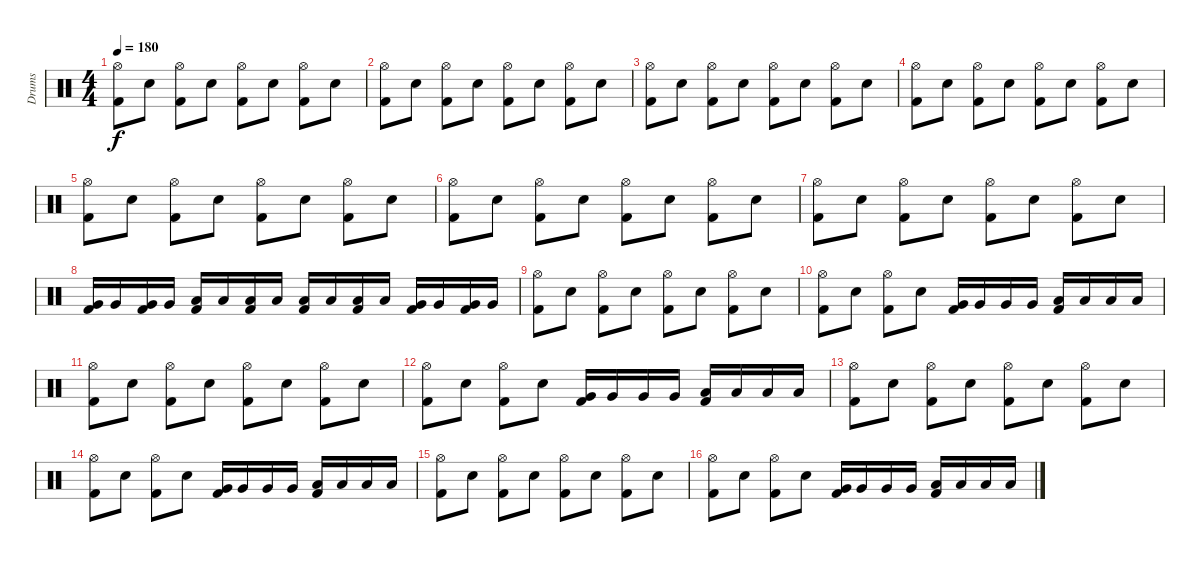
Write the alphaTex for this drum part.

\track ("Drums" "Drums") {instrument percussion}
\staff {score}
\articulation defaults
\ts (4 4)
\tempo 180
\clef neutral
\ks c
("Kick (hit) 2" "Hi-Hat (open)").8{dy f} "Electric Snare (hit)".8 ("Kick (hit) 2" "Hi-Hat (open)").8 "Electric Snare (hit)".8 ("Kick (hit) 2" "Hi-Hat (open)").8 "Electric Snare (hit)".8 ("Kick (hit) 2" "Hi-Hat (open)").8 "Electric Snare (hit)".8 |
("Kick (hit) 2" "Hi-Hat (open)").8 "Electric Snare (hit)".8 ("Kick (hit) 2" "Hi-Hat (open)").8 "Electric Snare (hit)".8 ("Kick (hit) 2" "Hi-Hat (open)").8 "Electric Snare (hit)".8 ("Kick (hit) 2" "Hi-Hat (open)").8 "Electric Snare (hit)".8 |
("Kick (hit) 2" "Hi-Hat (open)").8 "Electric Snare (hit)".8 ("Kick (hit) 2" "Hi-Hat (open)").8 "Electric Snare (hit)".8 ("Kick (hit) 2" "Hi-Hat (open)").8 "Electric Snare (hit)".8 ("Kick (hit) 2" "Hi-Hat (open)").8 "Electric Snare (hit)".8 |
("Kick (hit) 2" "Hi-Hat (open)").8 "Electric Snare (hit)".8 ("Kick (hit) 2" "Hi-Hat (open)").8 "Electric Snare (hit)".8 ("Kick (hit) 2" "Hi-Hat (open)").8 "Electric Snare (hit)".8 ("Kick (hit) 2" "Hi-Hat (open)").8 "Electric Snare (hit)".8 |
("Kick (hit) 2" "Hi-Hat (open)").8 "Electric Snare (hit)".8 ("Kick (hit) 2" "Hi-Hat (open)").8 "Electric Snare (hit)".8 ("Kick (hit) 2" "Hi-Hat (open)").8 "Electric Snare (hit)".8 ("Kick (hit) 2" "Hi-Hat (open)").8 "Electric Snare (hit)".8 |
("Kick (hit) 2" "Hi-Hat (open)").8 "Electric Snare (hit)".8 ("Kick (hit) 2" "Hi-Hat (open)").8 "Electric Snare (hit)".8 ("Kick (hit) 2" "Hi-Hat (open)").8 "Electric Snare (hit)".8 ("Kick (hit) 2" "Hi-Hat (open)").8 "Electric Snare (hit)".8 |
("Kick (hit) 2" "Hi-Hat (open)").8 "Electric Snare (hit)".8 ("Kick (hit) 2" "Hi-Hat (open)").8 "Electric Snare (hit)".8 ("Kick (hit) 2" "Hi-Hat (open)").8 "Electric Snare (hit)".8 ("Kick (hit) 2" "Hi-Hat (open)").8 "Electric Snare (hit)".8 |
("Kick (hit) 2" "Very Low Tom (hit)").16 "Very Low Tom (hit)".16 ("Kick (hit) 2" "Very Low Tom (hit)").16 "Very Low Tom (hit)".16 ("Kick (hit) 2" "Low Tom (hit)").16 "Low Tom (hit)".16 ("Kick (hit) 2" "Low Tom (hit)").16 "Low Tom (hit)".16 ("Kick (hit) 2" "Low Floor Tom (hit)").16 "Low Floor Tom (hit)".16 ("Kick (hit) 2" "Low Floor Tom (hit)").16 "Low Floor Tom (hit)".16 ("Kick (hit) 2" "Very Low Tom (hit)").16 "Very Low Tom (hit)".16 ("Kick (hit) 2" "Very Low Tom (hit)").16 "Very Low Tom (hit)".16 |
("Kick (hit) 2" "Hi-Hat (open)").8 "Electric Snare (hit)".8 ("Kick (hit) 2" "Hi-Hat (open)").8 "Electric Snare (hit)".8 ("Kick (hit) 2" "Hi-Hat (open)").8 "Electric Snare (hit)".8 ("Kick (hit) 2" "Hi-Hat (open)").8 "Electric Snare (hit)".8 |
("Kick (hit) 2" "Hi-Hat (open)").8 "Electric Snare (hit)".8 ("Kick (hit) 2" "Hi-Hat (open)").8 "Electric Snare (hit)".8 ("Kick (hit) 2" "Very Low Tom (hit)").16 "Very Low Tom (hit)".16 "Very Low Tom (hit)".16 "Very Low Tom (hit)".16 ("Kick (hit) 2" "Low Floor Tom (hit)").16 "Low Floor Tom (hit)".16 "Low Floor Tom (hit)".16 "Low Floor Tom (hit)".16 |
("Kick (hit) 2" "Hi-Hat (open)").8 "Electric Snare (hit)".8 ("Kick (hit) 2" "Hi-Hat (open)").8 "Electric Snare (hit)".8 ("Kick (hit) 2" "Hi-Hat (open)").8 "Electric Snare (hit)".8 ("Kick (hit) 2" "Hi-Hat (open)").8 "Electric Snare (hit)".8 |
("Kick (hit) 2" "Hi-Hat (open)").8 "Electric Snare (hit)".8 ("Kick (hit) 2" "Hi-Hat (open)").8 "Electric Snare (hit)".8 ("Kick (hit) 2" "Very Low Tom (hit)").16 "Very Low Tom (hit)".16 "Very Low Tom (hit)".16 "Very Low Tom (hit)".16 ("Kick (hit) 2" "Low Floor Tom (hit)").16 "Low Floor Tom (hit)".16 "Low Floor Tom (hit)".16 "Low Floor Tom (hit)".16 |
("Kick (hit) 2" "Hi-Hat (open)").8 "Electric Snare (hit)".8 ("Kick (hit) 2" "Hi-Hat (open)").8 "Electric Snare (hit)".8 ("Kick (hit) 2" "Hi-Hat (open)").8 "Electric Snare (hit)".8 ("Kick (hit) 2" "Hi-Hat (open)").8 "Electric Snare (hit)".8 |
("Kick (hit) 2" "Hi-Hat (open)").8 "Electric Snare (hit)".8 ("Kick (hit) 2" "Hi-Hat (open)").8 "Electric Snare (hit)".8 ("Kick (hit) 2" "Very Low Tom (hit)").16 "Very Low Tom (hit)".16 "Very Low Tom (hit)".16 "Very Low Tom (hit)".16 ("Kick (hit) 2" "Low Floor Tom (hit)").16 "Low Floor Tom (hit)".16 "Low Floor Tom (hit)".16 "Low Floor Tom (hit)".16 |
("Kick (hit) 2" "Hi-Hat (open)").8 "Electric Snare (hit)".8 ("Kick (hit) 2" "Hi-Hat (open)").8 "Electric Snare (hit)".8 ("Kick (hit) 2" "Hi-Hat (open)").8 "Electric Snare (hit)".8 ("Kick (hit) 2" "Hi-Hat (open)").8 "Electric Snare (hit)".8 |
("Kick (hit) 2" "Hi-Hat (open)").8 "Electric Snare (hit)".8 ("Kick (hit) 2" "Hi-Hat (open)").8 "Electric Snare (hit)".8 ("Kick (hit) 2" "Very Low Tom (hit)").16 "Very Low Tom (hit)".16 "Very Low Tom (hit)".16 "Very Low Tom (hit)".16 ("Kick (hit) 2" "Low Floor Tom (hit)").16 "Low Floor Tom (hit)".16 "Low Floor Tom (hit)".16 "Low Floor Tom (hit)".16
